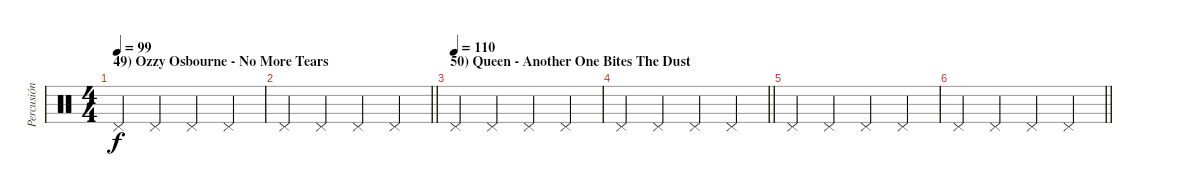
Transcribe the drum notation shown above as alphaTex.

\track ("Percusión" "Percusión") {instrument percussion}
\staff {score}
\articulation defaults
\ts (4 4)
\section ("" "49) Ozzy Osbourne - No More Tears")
\tempo 99
\clef neutral
\ks c "Pedal Hi-Hat (hit)".4{dy f} "Pedal Hi-Hat (hit)".4 "Pedal Hi-Hat (hit)".4 "Pedal Hi-Hat (hit)".4
|
\barLineRight lightlight "Pedal Hi-Hat (hit)".4 "Pedal Hi-Hat (hit)".4 "Pedal Hi-Hat (hit)".4 "Pedal Hi-Hat (hit)".4
|
\section ("" "50) Queen - Another One Bites The Dust")
\tempo (110)
"Pedal Hi-Hat (hit)".4 "Pedal Hi-Hat (hit)".4 "Pedal Hi-Hat (hit)".4 "Pedal Hi-Hat (hit)".4 |
\barLineRight lightlight "Pedal Hi-Hat (hit)".4 "Pedal Hi-Hat (hit)".4 "Pedal Hi-Hat (hit)".4 "Pedal Hi-Hat (hit)".4
|
"Pedal Hi-Hat (hit)".4 "Pedal Hi-Hat (hit)".4 "Pedal Hi-Hat (hit)".4 "Pedal Hi-Hat (hit)".4 |
\barLineRight lightlight "Pedal Hi-Hat (hit)".4 "Pedal Hi-Hat (hit)".4 "Pedal Hi-Hat (hit)".4 "Pedal Hi-Hat (hit)".4
